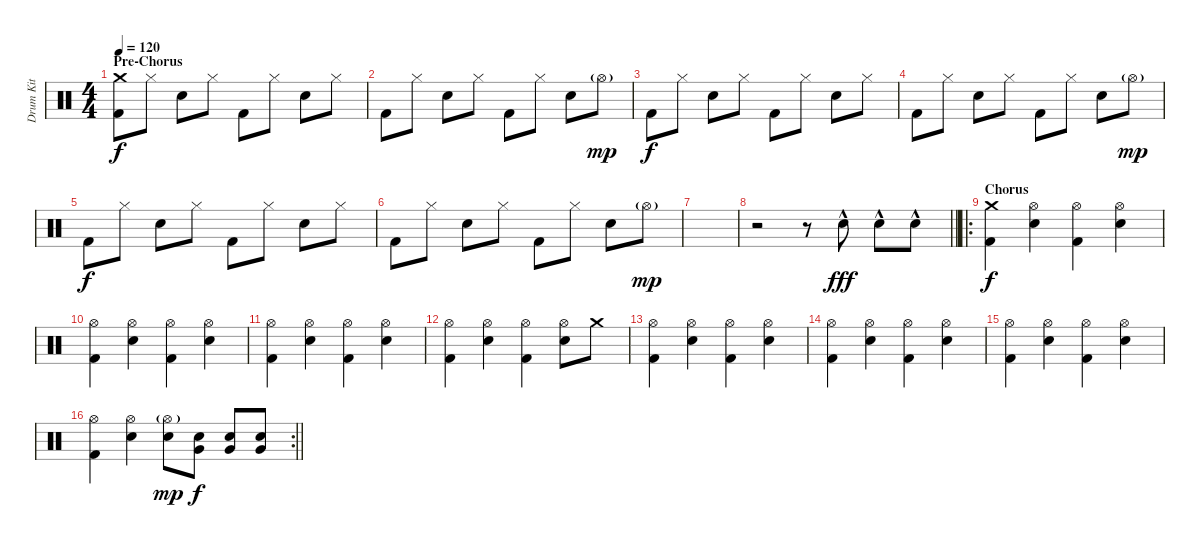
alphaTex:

\track ("Drum Kit" "Drum Kit") {instrument percussion}
\staff {score}
\articulation defaults
\ts (4 4)
\section ("" "Pre-Chorus")
\tempo 120
\clef neutral
\ks c
("Crash medium (hit)" "Kick (hit) 2").8{dy f} "Hi-Hat (closed)".8 "Electric Snare (hit)".8 "Hi-Hat (closed)".8 "Kick (hit) 2".8 "Hi-Hat (closed)".8 "Electric Snare (hit)".8 "Hi-Hat (closed)".8 |
"Kick (hit) 2".8 "Hi-Hat (closed)".8 "Electric Snare (hit)".8 "Hi-Hat (closed)".8 "Kick (hit) 2".8 "Hi-Hat (closed)".8 "Electric Snare (hit)".8 "Hi-Hat (open)"{g}.8{dy mp} |
"Kick (hit) 2".8{dy f} "Hi-Hat (closed)".8 "Electric Snare (hit)".8 "Hi-Hat (closed)".8 "Kick (hit) 2".8 "Hi-Hat (closed)".8 "Electric Snare (hit)".8 "Hi-Hat (closed)".8 |
"Kick (hit) 2".8 "Hi-Hat (closed)".8 "Electric Snare (hit)".8 "Hi-Hat (closed)".8 "Kick (hit) 2".8 "Hi-Hat (closed)".8 "Electric Snare (hit)".8 "Hi-Hat (open)"{g}.8{dy mp} |
"Kick (hit) 2".8{dy f} "Hi-Hat (closed)".8 "Electric Snare (hit)".8 "Hi-Hat (closed)".8 "Kick (hit) 2".8 "Hi-Hat (closed)".8 "Electric Snare (hit)".8 "Hi-Hat (closed)".8 |
"Kick (hit) 2".8 "Hi-Hat (closed)".8 "Electric Snare (hit)".8 "Hi-Hat (closed)".8 "Kick (hit) 2".8 "Hi-Hat (closed)".8 "Electric Snare (hit)".8 "Hi-Hat (open)"{g}.8{dy mp} |
|
\barLineRight lightlight
r.2 r.8 "Electric Snare (hit)"{hac}.8{dy fff} "Electric Snare (hit)"{hac}.8 "Electric Snare (hit)"{hac}.8 |
\ro
\section ("" "Chorus")
("Crash medium (hit)" "Kick (hit) 2").4{dy f} ("Hi-Hat (open)" "Electric Snare (hit)").4 ("Hi-Hat (open)" "Kick (hit) 2").4 ("Hi-Hat (open)" "Electric Snare (hit)").4 |
("Hi-Hat (open)" "Kick (hit) 2").4 ("Hi-Hat (open)" "Electric Snare (hit)").4 ("Hi-Hat (open)" "Kick (hit) 2").4 ("Hi-Hat (open)" "Electric Snare (hit)").4 |
("Hi-Hat (open)" "Kick (hit) 2").4 ("Hi-Hat (open)" "Electric Snare (hit)").4 ("Hi-Hat (open)" "Kick (hit) 2").4 ("Hi-Hat (open)" "Electric Snare (hit)").4 |
("Hi-Hat (open)" "Kick (hit) 2").4 ("Hi-Hat (open)" "Electric Snare (hit)").4 ("Hi-Hat (open)" "Kick (hit) 2").4 ("Hi-Hat (open)" "Electric Snare (hit)").8 "Crash medium (hit)".8 |
("Hi-Hat (open)" "Kick (hit) 2").4 ("Hi-Hat (open)" "Electric Snare (hit)").4 ("Hi-Hat (open)" "Kick (hit) 2").4 ("Hi-Hat (open)" "Electric Snare (hit)").4 |
("Hi-Hat (open)" "Kick (hit) 2").4 ("Hi-Hat (open)" "Electric Snare (hit)").4 ("Hi-Hat (open)" "Kick (hit) 2").4 ("Hi-Hat (open)" "Electric Snare (hit)").4 |
("Hi-Hat (open)" "Kick (hit) 2").4 ("Hi-Hat (open)" "Electric Snare (hit)").4 ("Hi-Hat (open)" "Kick (hit) 2").4 ("Hi-Hat (open)" "Electric Snare (hit)").4 |
\rc 2
\barLineRight lightlight
("Hi-Hat (open)" "Kick (hit) 2").4 ("Hi-Hat (open)" "Electric Snare (hit)").4 ("Hi-Hat (open)"{g} "Electric Snare (hit)").8{dy mp} ("Electric Snare (hit)" "Very Low Tom (hit)").8{dy f} ("Electric Snare (hit)" "Very Low Tom (hit)").8 ("Electric Snare (hit)" "Very Low Tom (hit)").8
